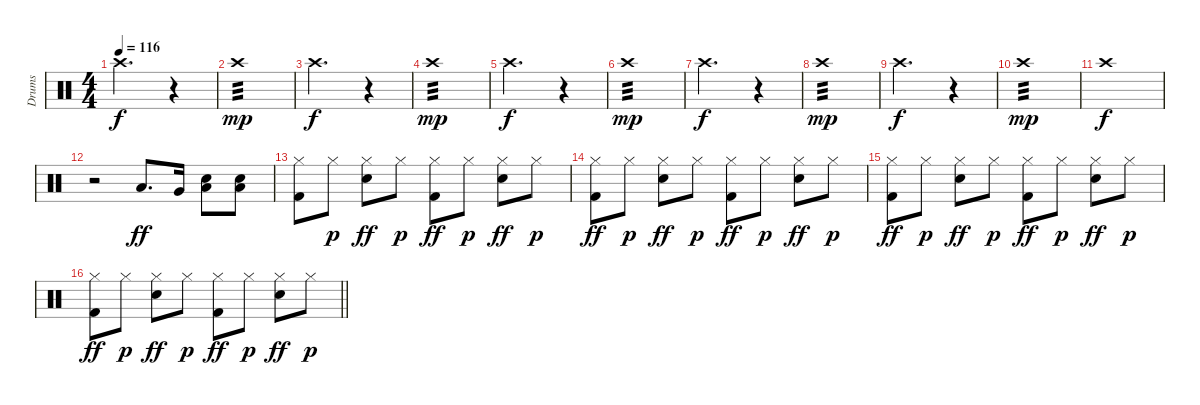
\track ("Drums" "Drums") {instrument percussion}
\staff {score}
\articulation defaults
\ts (4 4)
\tempo 116
\clef neutral
\ks c "Crash high (hit)".2{d dy f volume 13}
r.4{volume 0} |
"Crash high (hit)".1{tp 3 dy mp volume 9} |
"Crash high (hit)".2{d dy f volume 13} r.4{volume 0} |
"Crash high (hit)".1{tp 3 dy mp volume 9} |
"Crash high (hit)".2{d dy f volume 13} r.4{volume 0} |
"Crash high (hit)".1{tp 3 dy mp volume 9} |
"Crash high (hit)".2{d dy f volume 13} r.4{volume 0} |
"Crash high (hit)".1{tp 3 dy mp volume 9} |
"Crash high (hit)".2{d dy f volume 13} r.4{volume 0} |
"Crash high (hit)".1{tp 3 dy mp volume 9} |
"Crash high (hit)".1{dy f volume 13} |
r.2 "Low Tom (hit)".8{d dy ff} "Very Low Tom (hit)".16 ("Low Floor Tom (hit)" "Snare (hit) 2").8 ("Low Floor Tom (hit)" "Snare (hit) 2").8 |
("Hi-Hat (closed)" "Kick (hit) 2").8 "Hi-Hat (closed)".8{dy p} ("Hi-Hat (closed)" "Snare (hit) 2").8{dy ff} "Hi-Hat (closed)".8{dy p} ("Hi-Hat (closed)" "Kick (hit) 2").8{dy ff} "Hi-Hat (closed)".8{dy p} ("Hi-Hat (closed)" "Snare (hit) 2").8{dy ff} "Hi-Hat (closed)".8{dy p} |
("Hi-Hat (closed)" "Kick (hit) 2").8{dy ff} "Hi-Hat (closed)".8{dy p} ("Hi-Hat (closed)" "Snare (hit) 2").8{dy ff} "Hi-Hat (closed)".8{dy p} ("Hi-Hat (closed)" "Kick (hit) 2").8{dy ff} "Hi-Hat (closed)".8{dy p} ("Hi-Hat (closed)" "Snare (hit) 2").8{dy ff} "Hi-Hat (closed)".8{dy p} |
("Hi-Hat (closed)" "Kick (hit) 2").8{dy ff} "Hi-Hat (closed)".8{dy p} ("Hi-Hat (closed)" "Snare (hit) 2").8{dy ff} "Hi-Hat (closed)".8{dy p} ("Hi-Hat (closed)" "Kick (hit) 2").8{dy ff} "Hi-Hat (closed)".8{dy p} ("Hi-Hat (closed)" "Snare (hit) 2").8{dy ff} "Hi-Hat (closed)".8{dy p} |
\barLineRight lightlight
("Hi-Hat (closed)" "Kick (hit) 2").8{dy ff} "Hi-Hat (closed)".8{dy p} ("Hi-Hat (closed)" "Snare (hit) 2").8{dy ff} "Hi-Hat (closed)".8{dy p} ("Hi-Hat (closed)" "Kick (hit) 2").8{dy ff} "Hi-Hat (closed)".8{dy p} ("Hi-Hat (closed)" "Snare (hit) 2").8{dy ff} "Hi-Hat (closed)".8{dy p}
